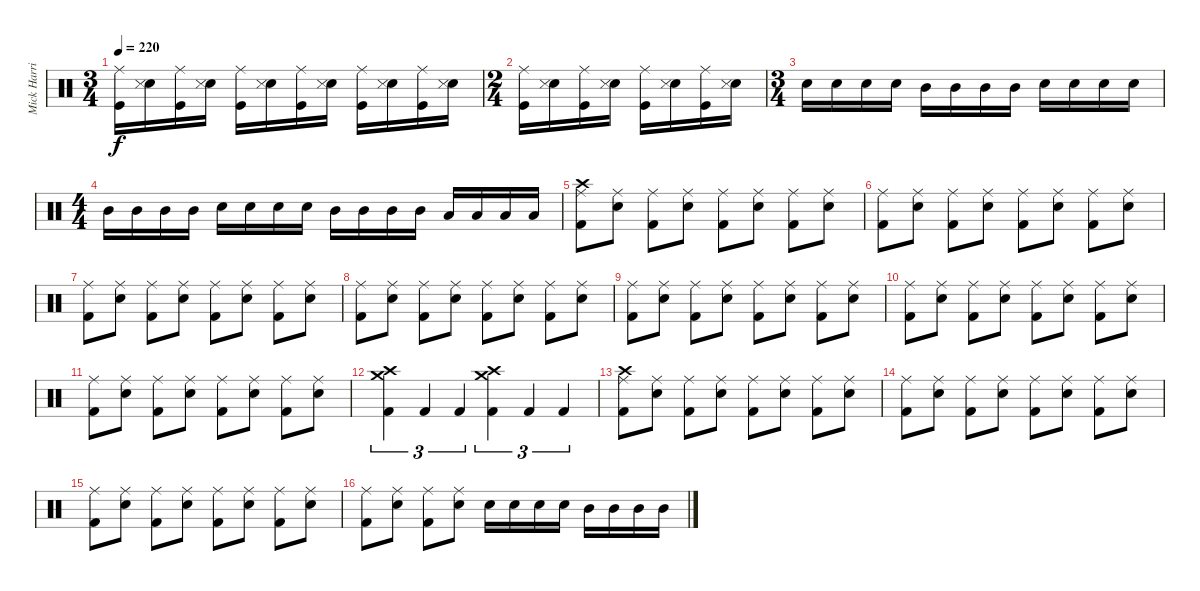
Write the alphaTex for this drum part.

\track ("Mick Harris (Drums)" "Mick Harri") {instrument percussion}
\staff {score}
\articulation defaults
\ts (3 4)
\tempo 220
\clef neutral
\ks c
("Kick (hit)" "Ride (middle)").16{dy f} ("Electric Snare (hit)" "Snare (side stick) 3").16 ("Kick (hit)" "Ride (middle)").16 ("Electric Snare (hit)" "Snare (side stick) 3").16 ("Kick (hit)" "Ride (middle)").16 ("Electric Snare (hit)" "Snare (side stick) 3").16 ("Kick (hit)" "Ride (middle)").16 ("Electric Snare (hit)" "Snare (side stick) 3").16 ("Kick (hit)" "Ride (middle)").16 ("Electric Snare (hit)" "Snare (side stick) 3").16 ("Kick (hit)" "Ride (middle)").16 ("Electric Snare (hit)" "Snare (side stick) 3").16 |
\ts (2 4)
("Kick (hit)" "Ride (middle)").16 ("Electric Snare (hit)" "Snare (side stick) 3").16 ("Kick (hit)" "Ride (middle)").16 ("Electric Snare (hit)" "Snare (side stick) 3").16 ("Kick (hit)" "Ride (middle)").16 ("Electric Snare (hit)" "Snare (side stick) 3").16 ("Kick (hit)" "Ride (middle)").16 ("Electric Snare (hit)" "Snare (side stick) 3").16 |
\ts (3 4)
"Electric Snare (hit)".16 "Electric Snare (hit)".16 "Electric Snare (hit)".16 "Electric Snare (hit)".16 "Mid Tom (hit)".16 "Mid Tom (hit)".16 "Mid Tom (hit)".16 "Mid Tom (hit)".16 "Electric Snare (hit)".16 "Electric Snare (hit)".16 "Electric Snare (hit)".16 "Electric Snare (hit)".16 |
\ts (4 4)
"Mid Tom (hit)".16 "Mid Tom (hit)".16 "Mid Tom (hit)".16 "Mid Tom (hit)".16 "Electric Snare (hit)".16 "Electric Snare (hit)".16 "Electric Snare (hit)".16 "Electric Snare (hit)".16 "Mid Tom (hit)".16 "Mid Tom (hit)".16 "Mid Tom (hit)".16 "Mid Tom (hit)".16 "Low Tom (hit)".16 "Low Tom (hit)".16 "Low Tom (hit)".16 "Low Tom (hit)".16 |
("Kick (hit) 2" "Crash high (hit)" "Ride (middle)").8 ("Electric Snare (hit)" "Ride (middle)").8 ("Kick (hit) 2" "Ride (middle)").8 ("Electric Snare (hit)" "Ride (middle)").8 ("Kick (hit) 2" "Ride (middle)").8 ("Electric Snare (hit)" "Ride (middle)").8 ("Kick (hit) 2" "Ride (middle)").8 ("Electric Snare (hit)" "Ride (middle)").8 |
("Kick (hit) 2" "Ride (middle)").8 ("Electric Snare (hit)" "Ride (middle)").8 ("Kick (hit) 2" "Ride (middle)").8 ("Electric Snare (hit)" "Ride (middle)").8 ("Kick (hit) 2" "Ride (middle)").8 ("Electric Snare (hit)" "Ride (middle)").8 ("Kick (hit) 2" "Ride (middle)").8 ("Electric Snare (hit)" "Ride (middle)").8 |
("Kick (hit) 2" "Ride (middle)").8 ("Electric Snare (hit)" "Ride (middle)").8 ("Kick (hit) 2" "Ride (middle)").8 ("Electric Snare (hit)" "Ride (middle)").8 ("Kick (hit) 2" "Ride (middle)").8 ("Electric Snare (hit)" "Ride (middle)").8 ("Kick (hit) 2" "Ride (middle)").8 ("Electric Snare (hit)" "Ride (middle)").8 |
("Kick (hit) 2" "Ride (middle)").8 ("Electric Snare (hit)" "Ride (middle)").8 ("Kick (hit) 2" "Ride (middle)").8 ("Electric Snare (hit)" "Ride (middle)").8 ("Kick (hit) 2" "Ride (middle)").8 ("Electric Snare (hit)" "Ride (middle)").8 ("Kick (hit) 2" "Ride (middle)").8 ("Electric Snare (hit)" "Ride (middle)").8 |
("Kick (hit) 2" "Ride (middle)").8 ("Electric Snare (hit)" "Ride (middle)").8 ("Kick (hit) 2" "Ride (middle)").8 ("Electric Snare (hit)" "Ride (middle)").8 ("Kick (hit) 2" "Ride (middle)").8 ("Electric Snare (hit)" "Ride (middle)").8 ("Kick (hit) 2" "Ride (middle)").8 ("Electric Snare (hit)" "Ride (middle)").8 |
("Kick (hit) 2" "Ride (middle)").8 ("Electric Snare (hit)" "Ride (middle)").8 ("Kick (hit) 2" "Ride (middle)").8 ("Electric Snare (hit)" "Ride (middle)").8 ("Kick (hit) 2" "Ride (middle)").8 ("Electric Snare (hit)" "Ride (middle)").8 ("Kick (hit) 2" "Ride (middle)").8 ("Electric Snare (hit)" "Ride (middle)").8 |
("Kick (hit) 2" "Ride (middle)").8 ("Electric Snare (hit)" "Ride (middle)").8 ("Kick (hit) 2" "Ride (middle)").8 ("Electric Snare (hit)" "Ride (middle)").8 ("Kick (hit) 2" "Ride (middle)").8 ("Electric Snare (hit)" "Ride (middle)").8 ("Kick (hit) 2" "Ride (middle)").8 ("Electric Snare (hit)" "Ride (middle)").8 |
("Kick (hit) 2" "Crash high (hit)" "Crash medium (hit)").4{tu (3 2)} "Kick (hit) 2".4{tu (3 2)} "Kick (hit) 2".4{tu (3 2)} ("Kick (hit) 2" "Crash high (hit)" "Crash medium (hit)").4{tu (3 2)} "Kick (hit) 2".4{tu (3 2)} "Kick (hit) 2".4{tu (3 2)} |
("Kick (hit) 2" "Crash high (hit)" "Ride (middle)").8 ("Electric Snare (hit)" "Ride (middle)").8 ("Kick (hit) 2" "Ride (middle)").8 ("Electric Snare (hit)" "Ride (middle)").8 ("Kick (hit) 2" "Ride (middle)").8 ("Electric Snare (hit)" "Ride (middle)").8 ("Kick (hit) 2" "Ride (middle)").8 ("Electric Snare (hit)" "Ride (middle)").8 |
("Kick (hit) 2" "Ride (middle)").8 ("Electric Snare (hit)" "Ride (middle)").8 ("Kick (hit) 2" "Ride (middle)").8 ("Electric Snare (hit)" "Ride (middle)").8 ("Kick (hit) 2" "Ride (middle)").8 ("Electric Snare (hit)" "Ride (middle)").8 ("Kick (hit) 2" "Ride (middle)").8 ("Electric Snare (hit)" "Ride (middle)").8 |
("Kick (hit) 2" "Ride (middle)").8 ("Electric Snare (hit)" "Ride (middle)").8 ("Kick (hit) 2" "Ride (middle)").8 ("Electric Snare (hit)" "Ride (middle)").8 ("Kick (hit) 2" "Ride (middle)").8 ("Electric Snare (hit)" "Ride (middle)").8 ("Kick (hit) 2" "Ride (middle)").8 ("Electric Snare (hit)" "Ride (middle)").8 |
("Kick (hit) 2" "Ride (middle)").8 ("Electric Snare (hit)" "Ride (middle)").8 ("Kick (hit) 2" "Ride (middle)").8 ("Electric Snare (hit)" "Ride (middle)").8 "Electric Snare (hit)".16 "Electric Snare (hit)".16 "Electric Snare (hit)".16 "Electric Snare (hit)".16 "Mid Tom (hit)".16 "Mid Tom (hit)".16 "Mid Tom (hit)".16 "Mid Tom (hit)".16
